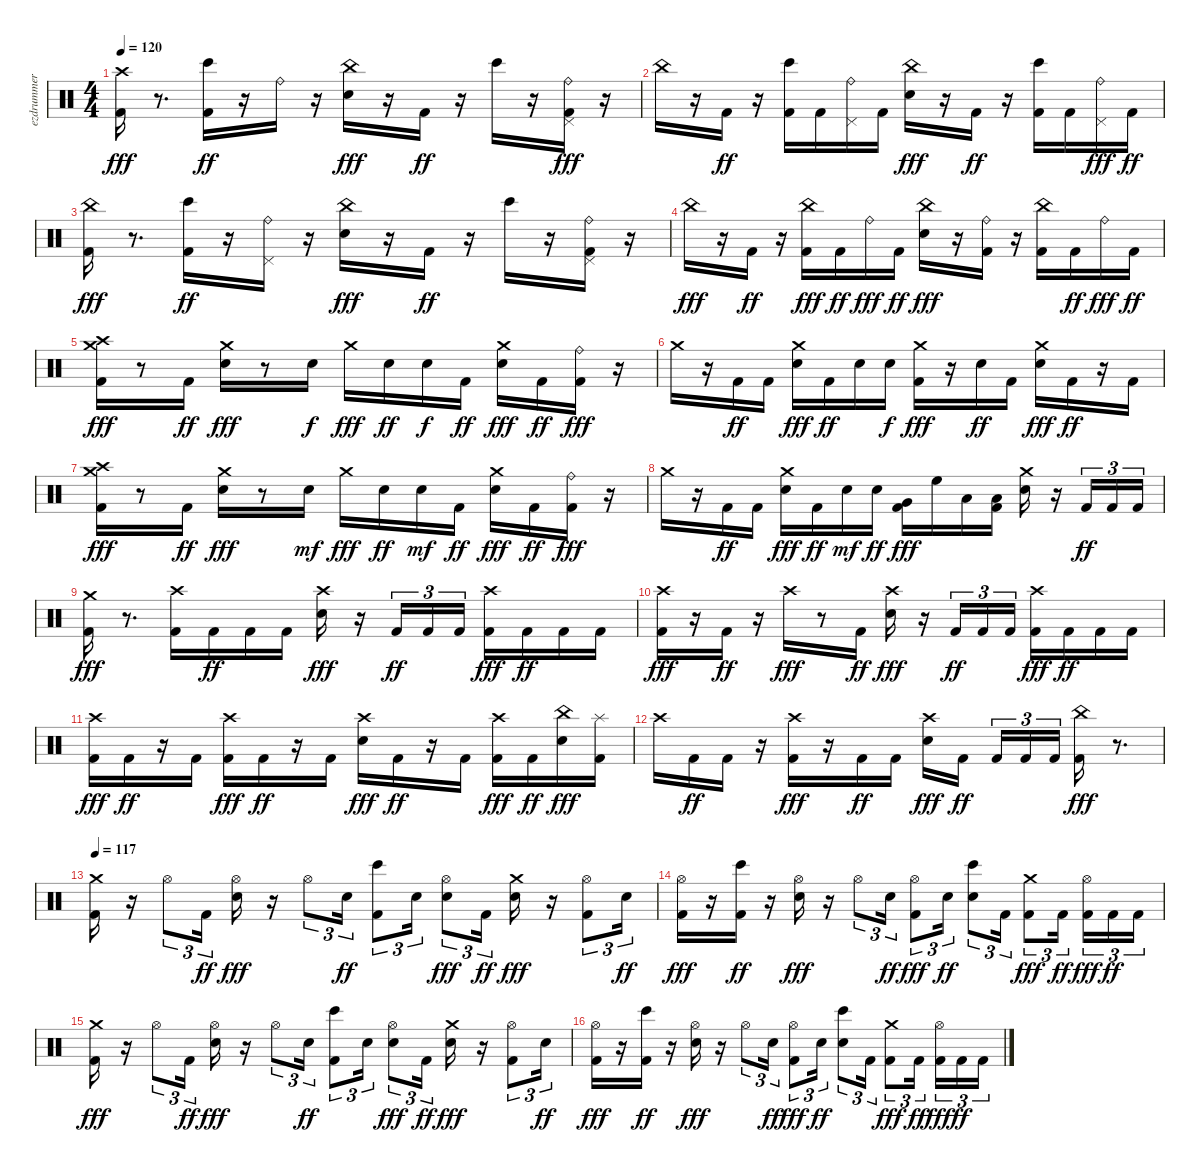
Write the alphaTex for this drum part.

\track ("ezdrummer 02" "ezdrummer ") {instrument percussion}
\staff {score}
\articulation defaults
\ts (4 4)
\tempo 120
\clef neutral
\ks c
("Kick (hit) 2" "Crash high (hit)").16{dy fff} r.8{d} ("Kick (hit) 2" "Bongo High (hit)").16{dy ff} r.16 "Ride (bell)".16 r.16 ("Snare (hit) 2" "China (hit)").16{dy fff} r.16 "Kick (hit) 2".16{dy ff} r.16 "Bongo High (hit)".16 r.16 ("Kick (hit) 2" "Pedal Hi-Hat (hit)" "Ride (bell)").16{dy fff} r.16 |
"China (hit)".16 r.16 "Kick (hit) 2".16{dy ff} r.16 ("Kick (hit) 2" "Bongo High (hit)").16 "Kick (hit) 2".16 ("Pedal Hi-Hat (hit)" "Ride (bell)").16 "Kick (hit) 2".16 ("Snare (hit) 2" "China (hit)").16{dy fff} r.16 "Kick (hit) 2".16{dy ff} r.16 ("Kick (hit) 2" "Bongo High (hit)").16 "Kick (hit) 2".16 ("Pedal Hi-Hat (hit)" "Ride (bell)").16{dy fff} "Kick (hit) 2".16{dy ff} |
("Kick (hit) 2" "China (hit)").16{dy fff} r.8{d} ("Kick (hit) 2" "Bongo High (hit)").16{dy ff} r.16 ("Pedal Hi-Hat (hit)" "Ride (bell)").16 r.16 ("Snare (hit) 2" "China (hit)").16{dy fff} r.16 "Kick (hit) 2".16{dy ff} r.16 "Bongo High (hit)".16 r.16 ("Kick (hit) 2" "Pedal Hi-Hat (hit)" "Ride (bell)").16 r.16 |
"China (hit)".16{dy fff} r.16 "Kick (hit) 2".16{dy ff} r.16 ("Kick (hit) 2" "China (hit)").16{dy fff} "Kick (hit) 2".16{dy ff} "Ride (bell)".16{dy fff} "Kick (hit) 2".16{dy ff} ("Snare (hit) 2" "China (hit)").16{dy fff} r.16 ("Kick (hit) 2" "Ride (bell)").16 r.16 ("Kick (hit) 2" "China (hit)").16 "Kick (hit) 2".16{dy ff} "Ride (bell)".16{dy fff} "Kick (hit) 2".16{dy ff} |
("Kick (hit) 2" "Crash high (hit)" "Crash medium (hit)").16{dy fff} r.8 "Kick (hit) 2".16{dy ff} ("Snare (hit) 2" "Crash medium (hit)").16{dy fff} r.8 "Snare (hit) 2".16{dy f} "Crash medium (hit)".16{dy fff} "Snare (hit) 2".16{dy ff} "Snare (hit) 2".16{dy f} "Kick (hit) 2".16{dy ff} ("Snare (hit) 2" "Crash medium (hit)").16{dy fff} "Kick (hit) 2".16{dy ff} ("Kick (hit) 2" "Ride (bell)").16{dy fff} r.16 |
"Crash medium (hit)".16 r.16 "Kick (hit) 2".16{dy ff} "Kick (hit) 2".16 ("Snare (hit) 2" "Crash medium (hit)").16{dy fff} "Kick (hit) 2".16{dy ff} "Snare (hit) 2".16 "Snare (hit) 2".16{dy f} ("Kick (hit) 2" "Crash medium (hit)").16{dy fff} r.16 "Snare (hit) 2".16{dy ff} "Kick (hit) 2".16 ("Snare (hit) 2" "Crash medium (hit)").16{dy fff} "Kick (hit) 2".16{dy ff} r.16 "Kick (hit) 2".16 |
("Kick (hit) 2" "Crash high (hit)" "Crash medium (hit)").16{dy fff} r.8 "Kick (hit) 2".16{dy ff} ("Snare (hit) 2" "Crash medium (hit)").16{dy fff} r.8 "Snare (hit) 2".16{dy mf} "Crash medium (hit)".16{dy fff} "Snare (hit) 2".16{dy ff} "Snare (hit) 2".16{dy mf} "Kick (hit) 2".16{dy ff} ("Snare (hit) 2" "Crash medium (hit)").16{dy fff} "Kick (hit) 2".16{dy ff} ("Kick (hit) 2" "Ride (bell)").16{dy fff} r.16 |
"Crash medium (hit)".16 r.16 "Kick (hit) 2".16{dy ff} "Kick (hit) 2".16 ("Snare (hit) 2" "Crash medium (hit)").16{dy fff} "Kick (hit) 2".16{dy ff} "Snare (hit) 2".16{dy mf} "Snare (hit) 2".16{dy ff} ("Kick (hit) 2" "Very Low Tom (hit)").16{dy fff} "High Floor Tom (hit)".16 "Low Floor Tom (hit)".16 ("Kick (hit) 2" "Low Tom (hit)").16 ("Snare (hit) 2" "Crash medium (hit)").16 r.16 "Kick (hit) 2".16{tu (3 2) dy ff} "Kick (hit) 2".16{tu (3 2)} "Kick (hit) 2".16{tu (3 2)} |
("Kick (hit) 2" "Crash medium (hit)").16{dy fff} r.8{d} ("Kick (hit) 2" "Crash high (hit)").16 "Kick (hit) 2".16{dy ff} "Kick (hit) 2".16 "Kick (hit) 2".16 ("Snare (hit) 2" "Crash high (hit)").16{dy fff} r.16 "Kick (hit) 2".16{tu (3 2) dy ff} "Kick (hit) 2".16{tu (3 2)} "Kick (hit) 2".16{tu (3 2)} ("Kick (hit) 2" "Crash high (hit)").16{dy fff} "Kick (hit) 2".16{dy ff} "Kick (hit) 2".16 "Kick (hit) 2".16 |
("Kick (hit) 2" "Crash high (hit)").16{dy fff} r.16 "Kick (hit) 2".16{dy ff} r.16 "Crash high (hit)".16{dy fff} r.8 "Kick (hit) 2".16{dy ff} ("Snare (hit) 2" "Crash high (hit)").16{dy fff} r.16 "Kick (hit) 2".16{tu (3 2) dy ff} "Kick (hit) 2".16{tu (3 2)} "Kick (hit) 2".16{tu (3 2)} ("Kick (hit) 2" "Crash high (hit)").16{dy fff} "Kick (hit) 2".16{dy ff} "Kick (hit) 2".16 "Kick (hit) 2".16 |
("Kick (hit) 2" "Crash high (hit)").16{dy fff} "Kick (hit) 2".16{dy ff} r.16 "Kick (hit) 2".16 ("Kick (hit) 2" "Crash high (hit)").16{dy fff} "Kick (hit) 2".16{dy ff} r.16 "Kick (hit) 2".16 ("Snare (hit) 2" "Crash high (hit)").16{dy fff} "Kick (hit) 2".16{dy ff} r.16 "Kick (hit) 2".16 ("Kick (hit) 2" "Crash high (hit)").16{dy fff} "Kick (hit) 2".16{dy ff} ("Snare (hit) 2" "China (hit)").16{dy fff} ("Kick (hit) 2" "Splash (hit)").16 |
"Crash high (hit)".16 "Kick (hit) 2".16{dy ff} "Kick (hit) 2".16 r.16 ("Kick (hit) 2" "Crash high (hit)").16{dy fff} r.16 "Kick (hit) 2".16{dy ff} "Kick (hit) 2".16 ("Snare (hit) 2" "Crash high (hit)").16{dy fff} "Kick (hit) 2".16{dy ff beam splitsecondary} "Kick (hit) 2".16{tu (3 2)} "Kick (hit) 2".16{tu (3 2)} "Kick (hit) 2".16{tu (3 2)} ("Kick (hit) 2" "China (hit)").16{dy fff} r.8{d} |
\tempo 117
("Kick (hit) 2" "Crash medium (hit)").16 r.16 "Hi-Hat (open)".8{tu (3 2)} "Kick (hit) 2".16{tu (3 2) dy ff} ("Snare (hit) 2" "Hi-Hat (open)").16{dy fff} r.16 "Hi-Hat (open)".8{tu (3 2)} "Snare (hit) 2".16{tu (3 2) dy ff} ("Kick (hit) 2" "Bongo High (hit)").8{tu (3 2)} "Snare (hit) 2".16{tu (3 2)} ("Snare (hit) 2" "Hi-Hat (open)").8{tu (3 2) dy fff} "Kick (hit) 2".16{tu (3 2) dy ff} ("Snare (hit) 2" "Crash medium (hit)").16{dy fff} r.16 ("Kick (hit) 2" "Hi-Hat (open)").8{tu (3 2)} "Snare (hit) 2".16{tu (3 2) dy ff} |
("Kick (hit) 2" "Hi-Hat (open)").16{dy fff} r.16 ("Kick (hit) 2" "Bongo High (hit)").16{dy ff} r.16 ("Snare (hit) 2" "Hi-Hat (open)").16{dy fff} r.16 "Hi-Hat (open)".8{tu (3 2)} "Snare (hit) 2".16{tu (3 2) dy ff} ("Kick (hit) 2" "Hi-Hat (open)").8{tu (3 2) dy fff} "Snare (hit) 2".16{tu (3 2) dy ff} ("Snare (hit) 2" "Bongo High (hit)").8{tu (3 2)} "Kick (hit) 2".16{tu (3 2)} ("Kick (hit) 2" "Crash medium (hit)").8{tu (3 2) dy fff} "Kick (hit) 2".16{tu (3 2) dy ff beam splitsecondary} ("Kick (hit) 2" "Hi-Hat (open)").16{tu (3 2) dy fff} "Kick (hit) 2".16{tu (3 2) dy ff} "Kick (hit) 2".16{tu (3 2)} |
("Kick (hit) 2" "Crash medium (hit)").16{dy fff} r.16 "Hi-Hat (open)".8{tu (3 2)} "Kick (hit) 2".16{tu (3 2) dy ff} ("Snare (hit) 2" "Hi-Hat (open)").16{dy fff} r.16 "Hi-Hat (open)".8{tu (3 2)} "Snare (hit) 2".16{tu (3 2) dy ff} ("Kick (hit) 2" "Bongo High (hit)").8{tu (3 2)} "Snare (hit) 2".16{tu (3 2)} ("Snare (hit) 2" "Hi-Hat (open)").8{tu (3 2) dy fff} "Kick (hit) 2".16{tu (3 2) dy ff} ("Snare (hit) 2" "Crash medium (hit)").16{dy fff} r.16 ("Kick (hit) 2" "Hi-Hat (open)").8{tu (3 2)} "Snare (hit) 2".16{tu (3 2) dy ff} |
("Kick (hit) 2" "Hi-Hat (open)").16{dy fff} r.16 ("Kick (hit) 2" "Bongo High (hit)").16{dy ff} r.16 ("Snare (hit) 2" "Hi-Hat (open)").16{dy fff} r.16 "Hi-Hat (open)".8{tu (3 2)} "Snare (hit) 2".16{tu (3 2) dy ff} ("Kick (hit) 2" "Hi-Hat (open)").8{tu (3 2) dy fff} "Snare (hit) 2".16{tu (3 2) dy ff} ("Snare (hit) 2" "Bongo High (hit)").8{tu (3 2)} "Kick (hit) 2".16{tu (3 2)} ("Kick (hit) 2" "Crash medium (hit)").8{tu (3 2) dy fff} "Kick (hit) 2".16{tu (3 2) dy ff beam splitsecondary} ("Kick (hit) 2" "Hi-Hat (open)").16{tu (3 2) dy fff} "Kick (hit) 2".16{tu (3 2) dy ff} "Kick (hit) 2".16{tu (3 2)}
